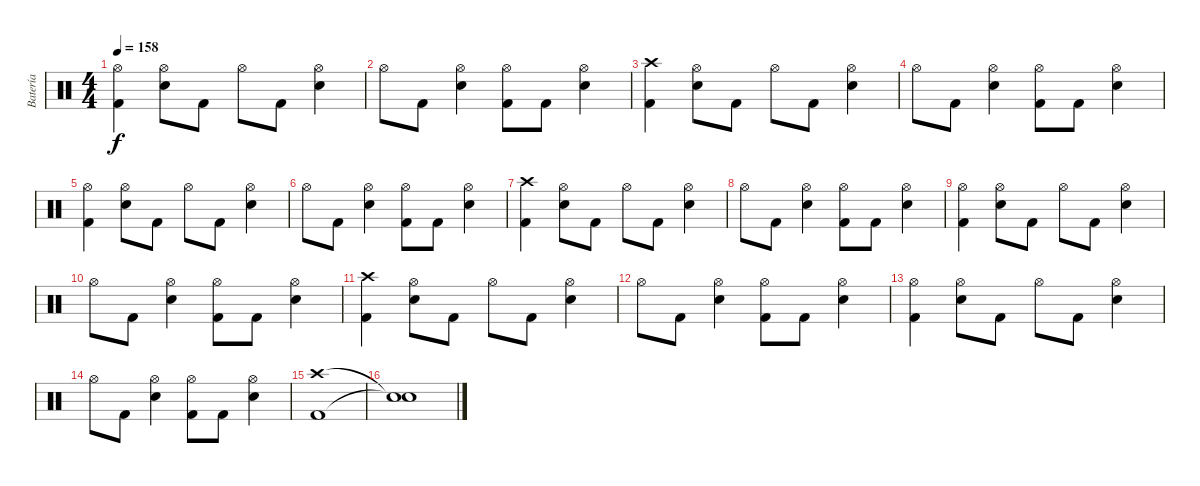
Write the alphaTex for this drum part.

\track ("Batería" "Batería") {instrument percussion}
\staff {score}
\articulation defaults
\ts (4 4)
\tempo 158
\clef neutral
\ks c
("Hi-Hat (open)" "Kick (hit) 2").4{dy f} ("Hi-Hat (open)" "Electric Snare (hit)").8 "Kick (hit) 2".8 "Hi-Hat (open)".8 "Kick (hit) 2".8 ("Hi-Hat (open)" "Electric Snare (hit)").4 |
"Hi-Hat (open)".8 "Kick (hit) 2".8 ("Hi-Hat (open)" "Electric Snare (hit)").4 ("Hi-Hat (open)" "Kick (hit) 2").8 "Kick (hit) 2".8 ("Hi-Hat (open)" "Electric Snare (hit)").4 |
("Crash high (hit)" "Kick (hit) 2").4 ("Hi-Hat (open)" "Electric Snare (hit)").8 "Kick (hit) 2".8 "Hi-Hat (open)".8 "Kick (hit) 2".8 ("Hi-Hat (open)" "Electric Snare (hit)").4 |
"Hi-Hat (open)".8 "Kick (hit) 2".8 ("Hi-Hat (open)" "Electric Snare (hit)").4 ("Hi-Hat (open)" "Kick (hit) 2").8 "Kick (hit) 2".8 ("Hi-Hat (open)" "Electric Snare (hit)").4 |
("Hi-Hat (open)" "Kick (hit) 2").4 ("Hi-Hat (open)" "Electric Snare (hit)").8 "Kick (hit) 2".8 "Hi-Hat (open)".8 "Kick (hit) 2".8 ("Hi-Hat (open)" "Electric Snare (hit)").4 |
"Hi-Hat (open)".8 "Kick (hit) 2".8 ("Hi-Hat (open)" "Electric Snare (hit)").4 ("Hi-Hat (open)" "Kick (hit) 2").8 "Kick (hit) 2".8 ("Hi-Hat (open)" "Electric Snare (hit)").4 |
("Crash high (hit)" "Kick (hit) 2").4 ("Hi-Hat (open)" "Electric Snare (hit)").8 "Kick (hit) 2".8 "Hi-Hat (open)".8 "Kick (hit) 2".8 ("Hi-Hat (open)" "Electric Snare (hit)").4 |
"Hi-Hat (open)".8 "Kick (hit) 2".8 ("Hi-Hat (open)" "Electric Snare (hit)").4 ("Hi-Hat (open)" "Kick (hit) 2").8 "Kick (hit) 2".8 ("Hi-Hat (open)" "Electric Snare (hit)").4 |
("Hi-Hat (open)" "Kick (hit) 2").4 ("Hi-Hat (open)" "Electric Snare (hit)").8 "Kick (hit) 2".8 "Hi-Hat (open)".8 "Kick (hit) 2".8 ("Hi-Hat (open)" "Electric Snare (hit)").4 |
"Hi-Hat (open)".8 "Kick (hit) 2".8 ("Hi-Hat (open)" "Electric Snare (hit)").4 ("Hi-Hat (open)" "Kick (hit) 2").8 "Kick (hit) 2".8 ("Hi-Hat (open)" "Electric Snare (hit)").4 |
("Crash high (hit)" "Kick (hit) 2").4 ("Hi-Hat (open)" "Electric Snare (hit)").8 "Kick (hit) 2".8 "Hi-Hat (open)".8 "Kick (hit) 2".8 ("Hi-Hat (open)" "Electric Snare (hit)").4 |
"Hi-Hat (open)".8 "Kick (hit) 2".8 ("Hi-Hat (open)" "Electric Snare (hit)").4 ("Hi-Hat (open)" "Kick (hit) 2").8 "Kick (hit) 2".8 ("Hi-Hat (open)" "Electric Snare (hit)").4 |
("Hi-Hat (open)" "Kick (hit) 2").4 ("Hi-Hat (open)" "Electric Snare (hit)").8 "Kick (hit) 2".8 "Hi-Hat (open)".8 "Kick (hit) 2".8 ("Hi-Hat (open)" "Electric Snare (hit)").4 |
"Hi-Hat (open)".8 "Kick (hit) 2".8 ("Hi-Hat (open)" "Electric Snare (hit)").4 ("Hi-Hat (open)" "Kick (hit) 2").8 "Kick (hit) 2".8 ("Hi-Hat (open)" "Electric Snare (hit)").4 |
("Crash high (hit)" "Kick (hit) 2").1 |
("Snare (hit)"{t} "Snare (hit)"{t}).1
